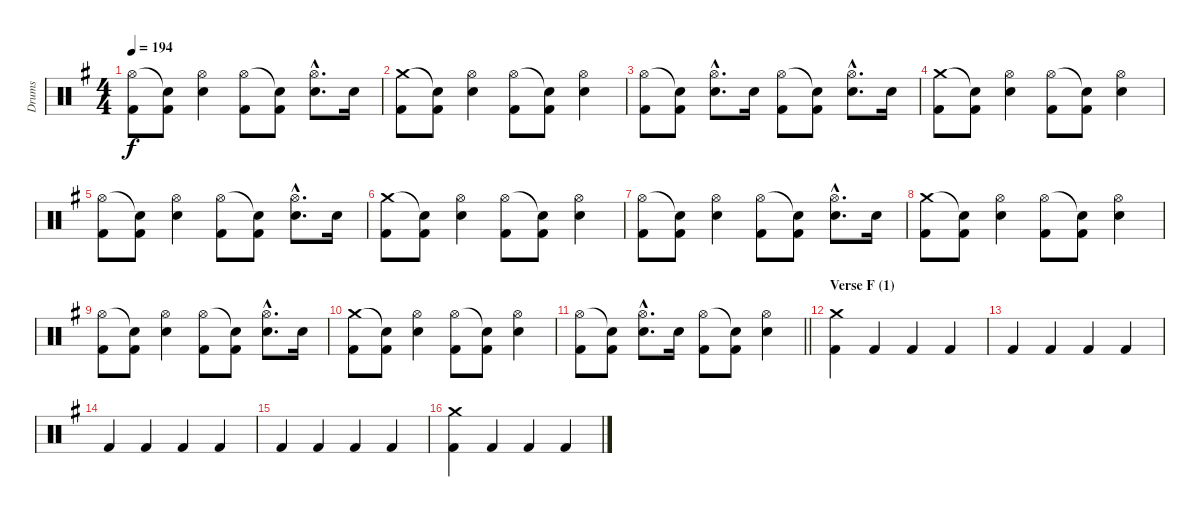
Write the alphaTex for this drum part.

\track ("Drums" "Drums") {instrument percussion}
\staff {score}
\articulation defaults
\ts (4 4)
\tempo 194
\clef neutral
\ks eminor
("Hi-Hat (open)" "Kick (hit) 2").8{dy f} ("Snare (hit)"{t} "Kick (hit) 2").8 ("Hi-Hat (open)" "Electric Snare (hit)").4 ("Hi-Hat (open)" "Kick (hit) 2").8 ("Snare (hit)"{t} "Kick (hit) 2").8 ("Hi-Hat (open)"{hac} "Electric Snare (hit)"{hac}).8{d} "Electric Snare (hit)".16 |
("Crash medium (hit)" "Kick (hit) 2").8 ("Snare (hit)"{t} "Kick (hit) 2").8 ("Hi-Hat (open)" "Electric Snare (hit)").4 ("Hi-Hat (open)" "Kick (hit) 2").8 ("Snare (hit)"{t} "Kick (hit) 2").8 ("Hi-Hat (open)" "Electric Snare (hit)").4 |
("Hi-Hat (open)" "Kick (hit) 2").8 ("Snare (hit)"{t} "Kick (hit) 2").8 ("Hi-Hat (open)"{hac} "Electric Snare (hit)"{hac}).8{d} "Electric Snare (hit)".16 ("Hi-Hat (open)" "Kick (hit) 2").8 ("Snare (hit)"{t} "Kick (hit) 2").8 ("Hi-Hat (open)"{hac} "Electric Snare (hit)"{hac}).8{d} "Electric Snare (hit)".16 |
("Crash medium (hit)" "Kick (hit) 2").8 ("Snare (hit)"{t} "Kick (hit) 2").8 ("Hi-Hat (open)" "Electric Snare (hit)").4 ("Hi-Hat (open)" "Kick (hit) 2").8 ("Snare (hit)"{t} "Kick (hit) 2").8 ("Hi-Hat (open)" "Electric Snare (hit)").4 |
("Hi-Hat (open)" "Kick (hit) 2").8 ("Snare (hit)"{t} "Kick (hit) 2").8 ("Hi-Hat (open)" "Electric Snare (hit)").4 ("Hi-Hat (open)" "Kick (hit) 2").8 ("Snare (hit)"{t} "Kick (hit) 2").8 ("Hi-Hat (open)"{hac} "Electric Snare (hit)"{hac}).8{d} "Electric Snare (hit)".16 |
("Crash medium (hit)" "Kick (hit) 2").8 ("Snare (hit)"{t} "Kick (hit) 2").8 ("Hi-Hat (open)" "Electric Snare (hit)").4 ("Hi-Hat (open)" "Kick (hit) 2").8 ("Snare (hit)"{t} "Kick (hit) 2").8 ("Hi-Hat (open)" "Electric Snare (hit)").4 |
("Hi-Hat (open)" "Kick (hit) 2").8 ("Snare (hit)"{t} "Kick (hit) 2").8 ("Hi-Hat (open)" "Electric Snare (hit)").4 ("Hi-Hat (open)" "Kick (hit) 2").8 ("Snare (hit)"{t} "Kick (hit) 2").8 ("Hi-Hat (open)"{hac} "Electric Snare (hit)"{hac}).8{d} "Electric Snare (hit)".16 |
("Crash medium (hit)" "Kick (hit) 2").8 ("Snare (hit)"{t} "Kick (hit) 2").8 ("Hi-Hat (open)" "Electric Snare (hit)").4 ("Hi-Hat (open)" "Kick (hit) 2").8 ("Snare (hit)"{t} "Kick (hit) 2").8 ("Hi-Hat (open)" "Electric Snare (hit)").4 |
("Hi-Hat (open)" "Kick (hit) 2").8 ("Snare (hit)"{t} "Kick (hit) 2").8 ("Hi-Hat (open)" "Electric Snare (hit)").4 ("Hi-Hat (open)" "Kick (hit) 2").8 ("Snare (hit)"{t} "Kick (hit) 2").8 ("Hi-Hat (open)"{hac} "Electric Snare (hit)"{hac}).8{d} "Electric Snare (hit)".16 |
("Crash medium (hit)" "Kick (hit) 2").8 ("Snare (hit)"{t} "Kick (hit) 2").8 ("Hi-Hat (open)" "Electric Snare (hit)").4 ("Hi-Hat (open)" "Kick (hit) 2").8 ("Snare (hit)"{t} "Kick (hit) 2").8 ("Hi-Hat (open)" "Electric Snare (hit)").4 |
\barLineRight lightlight
("Hi-Hat (open)" "Kick (hit) 2").8 ("Snare (hit)"{t} "Kick (hit) 2").8 ("Hi-Hat (open)"{hac} "Electric Snare (hit)"{hac}).8{d} "Electric Snare (hit)".16 ("Hi-Hat (open)" "Kick (hit) 2").8 ("Snare (hit)"{t} "Kick (hit) 2").8 ("Hi-Hat (open)" "Electric Snare (hit)").4 |
\section ("" "Verse F (1)")
("Crash medium (hit)" "Kick (hit) 2").4 "Kick (hit) 2".4 "Kick (hit) 2".4 "Kick (hit) 2".4 |
"Kick (hit) 2".4 "Kick (hit) 2".4 "Kick (hit) 2".4 "Kick (hit) 2".4 |
"Kick (hit) 2".4 "Kick (hit) 2".4 "Kick (hit) 2".4 "Kick (hit) 2".4 |
"Kick (hit) 2".4 "Kick (hit) 2".4 "Kick (hit) 2".4 "Kick (hit) 2".4 |
("Crash medium (hit)" "Kick (hit) 2").4 "Kick (hit) 2".4 "Kick (hit) 2".4 "Kick (hit) 2".4
